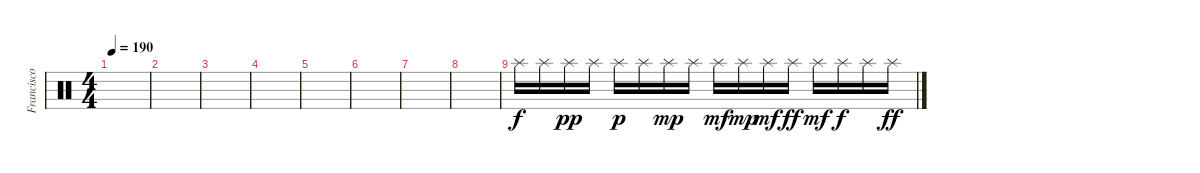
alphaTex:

\track ("Francisco Izquierdo (Percusión)" "Francisco ") {instrument percussion}
\staff {score}
\articulation defaults
\ts (4 4)
\tempo 190
\clef neutral
\ks c
|
|
|
|
|
|
|
|
"Splash (hit)".16 "Splash (hit)".16 "Splash (hit)".16{dy pp} "Splash (hit)".16 "Splash (hit)".16{dy p} "Splash (hit)".16 "Splash (hit)".16{dy mp} "Splash (hit)".16 "Splash (hit)".16{dy mf} "Splash (hit)".16{dy mp} "Splash (hit)".16{dy mf} "Splash (hit)".16{dy ff} "Splash (hit)".16{dy mf} "Splash (hit)".16{dy f} "Splash (hit)".16 "Splash (hit)".16{dy ff}
